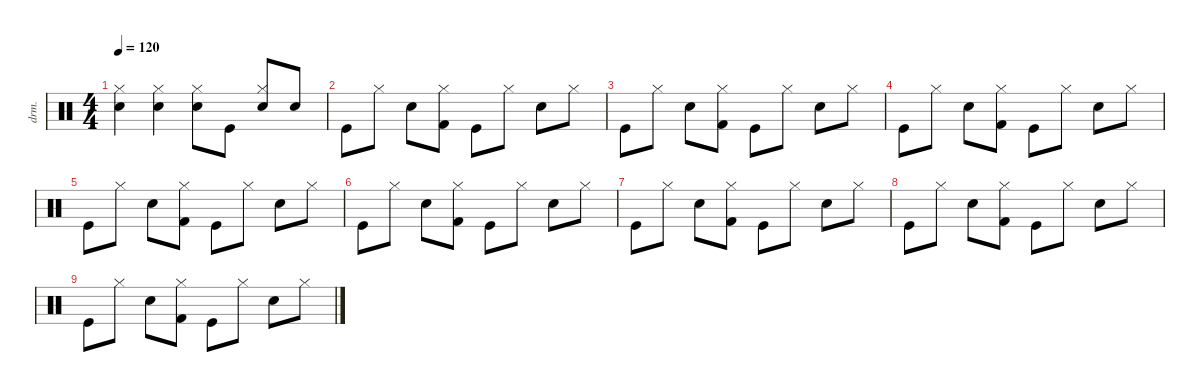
\defaultSystemsLayout 4
\hideDynamics
\bracketExtendMode nobrackets
\otherSystemsTrackNameOrientation horizontal
\track ("Drumkit" "drm.") {instrument percussion}
\staff {score}
\articulation defaults
\ts (4 4)
\tempo 120
\clef neutral
\ks c
("Hi-Hat (closed)" "Snare (hit) 2").4{dy mf beam Down} ("Hi-Hat (closed)" "Snare (hit) 2").4{beam Down} ("Hi-Hat (closed)" "Snare (hit) 2").8{beam Down} "Kick (hit)".8{beam Down} ("Snare (hit) 2" "Hi-Hat (closed)").8{beam Up} "Snare (hit) 2".8{beam Up} |
"Kick (hit)".8{beam Down} "Hi-Hat (closed)".8{beam Down} "Snare (hit) 2".8{beam Down} ("Hi-Hat (closed)" "Kick (hit) 2").8{beam Down} "Kick (hit)".8{beam Down} "Hi-Hat (closed)".8{beam Down} "Snare (hit) 2".8{beam Down} "Hi-Hat (closed)".8{beam Down} |
"Kick (hit)".8{beam Down} "Hi-Hat (closed)".8{beam Down} "Snare (hit) 2".8{beam Down} ("Hi-Hat (closed)" "Kick (hit) 2").8{beam Down} "Kick (hit)".8{beam Down} "Hi-Hat (closed)".8{beam Down} "Snare (hit) 2".8{beam Down} "Hi-Hat (closed)".8{beam Down} |
"Kick (hit)".8{beam Down} "Hi-Hat (closed)".8{beam Down} "Snare (hit) 2".8{beam Down} ("Hi-Hat (closed)" "Kick (hit) 2").8{beam Down} "Kick (hit)".8{beam Down} "Hi-Hat (closed)".8{beam Down} "Snare (hit) 2".8{beam Down} "Hi-Hat (closed)".8{beam Down} |
"Kick (hit)".8{beam Down} "Hi-Hat (closed)".8{beam Down} "Snare (hit) 2".8{beam Down} ("Hi-Hat (closed)" "Kick (hit) 2").8{beam Down} "Kick (hit)".8{beam Down} "Hi-Hat (closed)".8{beam Down} "Snare (hit) 2".8{beam Down} "Hi-Hat (closed)".8{beam Down} |
"Kick (hit)".8{beam Down} "Hi-Hat (closed)".8{beam Down} "Snare (hit) 2".8{beam Down} ("Hi-Hat (closed)" "Kick (hit) 2").8{beam Down} "Kick (hit)".8{beam Down} "Hi-Hat (closed)".8{beam Down} "Snare (hit) 2".8{beam Down} "Hi-Hat (closed)".8{beam Down} |
"Kick (hit)".8{beam Down} "Hi-Hat (closed)".8{beam Down} "Snare (hit) 2".8{beam Down} ("Hi-Hat (closed)" "Kick (hit) 2").8{beam Down} "Kick (hit)".8{beam Down} "Hi-Hat (closed)".8{beam Down} "Snare (hit) 2".8{beam Down} "Hi-Hat (closed)".8{beam Down} |
"Kick (hit)".8{beam Down} "Hi-Hat (closed)".8{beam Down} "Snare (hit) 2".8{beam Down} ("Hi-Hat (closed)" "Kick (hit) 2").8{beam Down} "Kick (hit)".8{beam Down} "Hi-Hat (closed)".8{beam Down} "Snare (hit) 2".8{beam Down} "Hi-Hat (closed)".8{beam Down} |
"Kick (hit)".8{beam Down} "Hi-Hat (closed)".8{beam Down} "Snare (hit) 2".8{beam Down} ("Hi-Hat (closed)" "Kick (hit) 2").8{beam Down} "Kick (hit)".8{beam Down} "Hi-Hat (closed)".8{beam Down} "Snare (hit) 2".8{beam Down} "Hi-Hat (closed)".8{beam Down}
